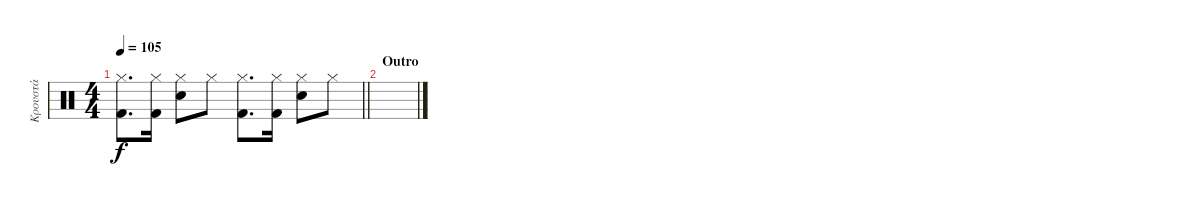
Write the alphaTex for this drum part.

\track ("Κρουστά" "Κρουστά") {instrument percussion}
\staff {score}
\articulation defaults
\ts (4 4)
\tempo 105
\clef neutral
\barLineRight lightlight
\ks c
("Hi-Hat (closed)" "Kick (hit) 2").8{d dy f} ("Hi-Hat (closed)" "Kick (hit) 2").16 ("Hi-Hat (closed)" "Electric Snare (hit)").8 "Hi-Hat (closed)".8 ("Hi-Hat (closed)" "Kick (hit) 2").8{d} ("Hi-Hat (closed)" "Kick (hit) 2").16 ("Hi-Hat (closed)" "Electric Snare (hit)").8 "Hi-Hat (closed)".8 |
\section ("" "Outro")
